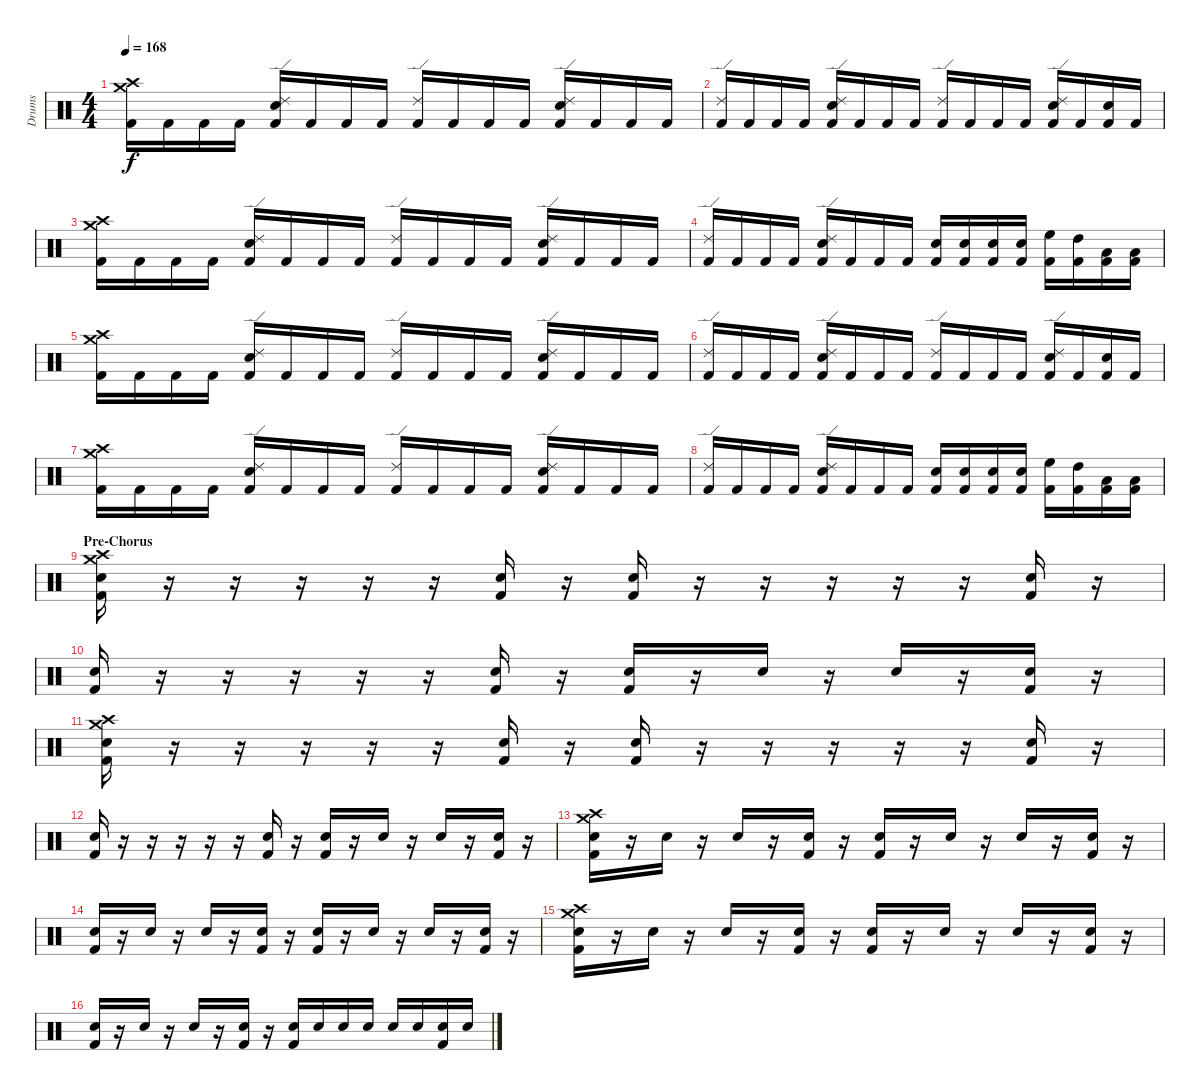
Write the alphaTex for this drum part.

\track ("Drums" "Drums") {instrument percussion}
\staff {score}
\articulation defaults
\ts (4 4)
\tempo 168
\clef neutral
\ks c
("Crash medium (hit)" "Crash high (hit)" "Kick (hit) 2").16{dy f} "Kick (hit) 2".16 "Kick (hit) 2".16 "Kick (hit) 2".16 ("Ride (edge) 2" "Snare (hit) 2" "Kick (hit) 2").16 "Kick (hit) 2".16 "Kick (hit) 2".16 "Kick (hit) 2".16 ("Ride (edge) 2" "Kick (hit) 2").16 "Kick (hit) 2".16 "Kick (hit) 2".16 "Kick (hit) 2".16 ("Ride (edge) 2" "Snare (hit) 2" "Kick (hit) 2").16 "Kick (hit) 2".16 "Kick (hit) 2".16 "Kick (hit) 2".16 |
("Ride (edge) 2" "Kick (hit) 2").16 "Kick (hit) 2".16 "Kick (hit) 2".16 "Kick (hit) 2".16 ("Ride (edge) 2" "Snare (hit) 2" "Kick (hit) 2").16 "Kick (hit) 2".16 "Kick (hit) 2".16 "Kick (hit) 2".16 ("Ride (edge) 2" "Kick (hit) 2").16 "Kick (hit) 2".16 "Kick (hit) 2".16 "Kick (hit) 2".16 ("Ride (edge) 2" "Snare (hit) 2" "Kick (hit) 2").16 "Kick (hit) 2".16 ("Snare (hit) 2" "Kick (hit) 2").16 "Kick (hit) 2".16 |
("Crash medium (hit)" "Crash high (hit)" "Kick (hit) 2").16 "Kick (hit) 2".16 "Kick (hit) 2".16 "Kick (hit) 2".16 ("Ride (edge) 2" "Snare (hit) 2" "Kick (hit) 2").16 "Kick (hit) 2".16 "Kick (hit) 2".16 "Kick (hit) 2".16 ("Ride (edge) 2" "Kick (hit) 2").16 "Kick (hit) 2".16 "Kick (hit) 2".16 "Kick (hit) 2".16 ("Ride (edge) 2" "Snare (hit) 2" "Kick (hit) 2").16 "Kick (hit) 2".16 "Kick (hit) 2".16 "Kick (hit) 2".16 |
("Ride (edge) 2" "Kick (hit) 2").16 "Kick (hit) 2".16 "Kick (hit) 2".16 "Kick (hit) 2".16 ("Ride (edge) 2" "Snare (hit) 2" "Kick (hit) 2").16 "Kick (hit) 2".16 "Kick (hit) 2".16 "Kick (hit) 2".16 ("Snare (hit) 2" "Kick (hit) 2").16 ("Snare (hit) 2" "Kick (hit) 2").16 ("Snare (hit) 2" "Kick (hit) 2").16 ("Snare (hit) 2" "Kick (hit) 2").16 ("High Floor Tom (hit)" "Kick (hit) 2").16 ("High Tom (hit)" "Kick (hit) 2").16 ("Low Tom (hit)" "Kick (hit) 2").16 ("Low Floor Tom (hit)" "Kick (hit) 2").16 |
("Crash medium (hit)" "Crash high (hit)" "Kick (hit) 2").16 "Kick (hit) 2".16 "Kick (hit) 2".16 "Kick (hit) 2".16 ("Ride (edge) 2" "Snare (hit) 2" "Kick (hit) 2").16 "Kick (hit) 2".16 "Kick (hit) 2".16 "Kick (hit) 2".16 ("Ride (edge) 2" "Kick (hit) 2").16 "Kick (hit) 2".16 "Kick (hit) 2".16 "Kick (hit) 2".16 ("Ride (edge) 2" "Snare (hit) 2" "Kick (hit) 2").16 "Kick (hit) 2".16 "Kick (hit) 2".16 "Kick (hit) 2".16 |
("Ride (edge) 2" "Kick (hit) 2").16 "Kick (hit) 2".16 "Kick (hit) 2".16 "Kick (hit) 2".16 ("Ride (edge) 2" "Snare (hit) 2" "Kick (hit) 2").16 "Kick (hit) 2".16 "Kick (hit) 2".16 "Kick (hit) 2".16 ("Ride (edge) 2" "Kick (hit) 2").16 "Kick (hit) 2".16 "Kick (hit) 2".16 "Kick (hit) 2".16 ("Ride (edge) 2" "Snare (hit) 2" "Kick (hit) 2").16 "Kick (hit) 2".16 ("Snare (hit) 2" "Kick (hit) 2").16 "Kick (hit) 2".16 |
("Crash medium (hit)" "Crash high (hit)" "Kick (hit) 2").16 "Kick (hit) 2".16 "Kick (hit) 2".16 "Kick (hit) 2".16 ("Ride (edge) 2" "Snare (hit) 2" "Kick (hit) 2").16 "Kick (hit) 2".16 "Kick (hit) 2".16 "Kick (hit) 2".16 ("Ride (edge) 2" "Kick (hit) 2").16 "Kick (hit) 2".16 "Kick (hit) 2".16 "Kick (hit) 2".16 ("Ride (edge) 2" "Snare (hit) 2" "Kick (hit) 2").16 "Kick (hit) 2".16 "Kick (hit) 2".16 "Kick (hit) 2".16 |
("Ride (edge) 2" "Kick (hit) 2").16 "Kick (hit) 2".16 "Kick (hit) 2".16 "Kick (hit) 2".16 ("Ride (edge) 2" "Snare (hit) 2" "Kick (hit) 2").16 "Kick (hit) 2".16 "Kick (hit) 2".16 "Kick (hit) 2".16 ("Snare (hit) 2" "Kick (hit) 2").16 ("Snare (hit) 2" "Kick (hit) 2").16 ("Snare (hit) 2" "Kick (hit) 2").16 ("Snare (hit) 2" "Kick (hit) 2").16 ("High Floor Tom (hit)" "Kick (hit) 2").16 ("High Tom (hit)" "Kick (hit) 2").16 ("Low Tom (hit)" "Kick (hit) 2").16 ("Low Floor Tom (hit)" "Kick (hit) 2").16 |
\section ("" "Pre-Chorus")
("Crash medium (hit)" "Crash high (hit)" "Snare (hit) 2" "Kick (hit) 2").16 r.16 r.16 r.16 r.16 r.16 ("Snare (hit) 2" "Kick (hit) 2").16 r.16 ("Snare (hit) 2" "Kick (hit) 2").16 r.16 r.16 r.16 r.16 r.16 ("Snare (hit) 2" "Kick (hit) 2").16 r.16 |
("Snare (hit) 2" "Kick (hit) 2").16 r.16 r.16 r.16 r.16 r.16 ("Snare (hit) 2" "Kick (hit) 2").16 r.16 ("Snare (hit) 2" "Kick (hit) 2").16 r.16 "Snare (hit) 2".16 r.16 "Snare (hit) 2".16 r.16 ("Snare (hit) 2" "Kick (hit) 2").16 r.16 |
("Crash medium (hit)" "Crash high (hit)" "Snare (hit) 2" "Kick (hit) 2").16 r.16 r.16 r.16 r.16 r.16 ("Snare (hit) 2" "Kick (hit) 2").16 r.16 ("Snare (hit) 2" "Kick (hit) 2").16 r.16 r.16 r.16 r.16 r.16 ("Snare (hit) 2" "Kick (hit) 2").16 r.16 |
("Snare (hit) 2" "Kick (hit) 2").16 r.16 r.16 r.16 r.16 r.16 ("Snare (hit) 2" "Kick (hit) 2").16 r.16 ("Snare (hit) 2" "Kick (hit) 2").16 r.16 "Snare (hit) 2".16 r.16 "Snare (hit) 2".16 r.16 ("Snare (hit) 2" "Kick (hit) 2").16 r.16 |
("Crash medium (hit)" "Crash high (hit)" "Snare (hit) 2" "Kick (hit) 2").16 r.16 "Snare (hit) 2".16 r.16 "Snare (hit) 2".16 r.16 ("Snare (hit) 2" "Kick (hit) 2").16 r.16 ("Snare (hit) 2" "Kick (hit) 2").16 r.16 "Snare (hit) 2".16 r.16 "Snare (hit) 2".16 r.16 ("Snare (hit) 2" "Kick (hit) 2").16 r.16 |
("Snare (hit) 2" "Kick (hit) 2").16 r.16 "Snare (hit) 2".16 r.16 "Snare (hit) 2".16 r.16 ("Snare (hit) 2" "Kick (hit) 2").16 r.16 ("Snare (hit) 2" "Kick (hit) 2").16 r.16 "Snare (hit) 2".16 r.16 "Snare (hit) 2".16 r.16 ("Snare (hit) 2" "Kick (hit) 2").16 r.16 |
("Crash medium (hit)" "Crash high (hit)" "Snare (hit) 2" "Kick (hit) 2").16 r.16 "Snare (hit) 2".16 r.16 "Snare (hit) 2".16 r.16 ("Snare (hit) 2" "Kick (hit) 2").16 r.16 ("Snare (hit) 2" "Kick (hit) 2").16 r.16 "Snare (hit) 2".16 r.16 "Snare (hit) 2".16 r.16 ("Snare (hit) 2" "Kick (hit) 2").16 r.16 |
("Snare (hit) 2" "Kick (hit) 2").16 r.16 "Snare (hit) 2".16 r.16 "Snare (hit) 2".16 r.16 ("Snare (hit) 2" "Kick (hit) 2").16 r.16 ("Snare (hit) 2" "Kick (hit) 2").16 "Snare (hit) 2".16 "Snare (hit) 2".16 "Snare (hit) 2".16 "Snare (hit) 2".16 "Snare (hit) 2".16 ("Snare (hit) 2" "Kick (hit) 2").16 "Snare (hit) 2".16
